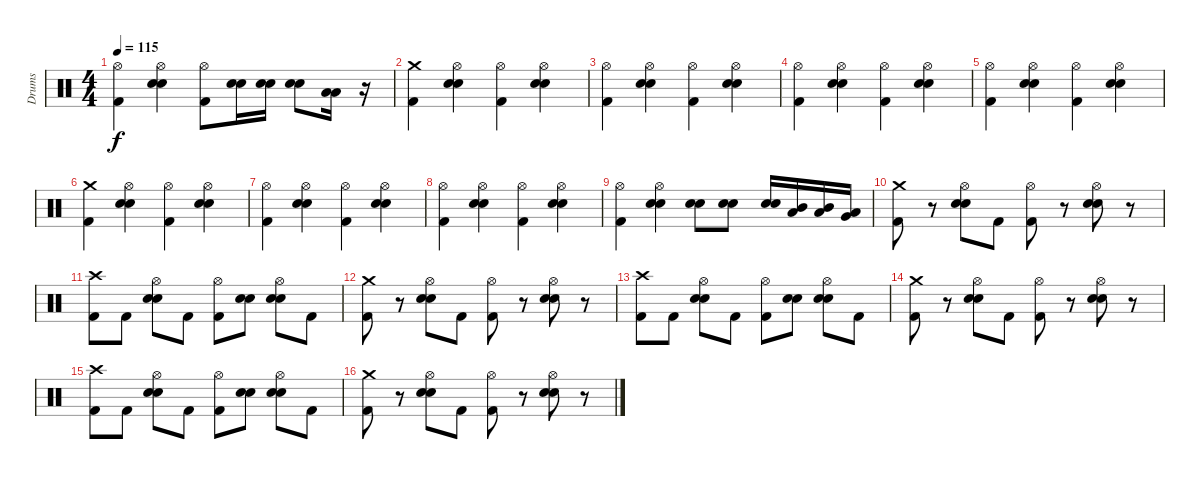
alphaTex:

\track ("Drums" "Drums") {instrument percussion}
\staff {score}
\articulation defaults
\ts (4 4)
\tempo 115
\clef neutral
\ks c
("Hi-Hat (open)" "Kick (hit) 2").4{dy f} ("Hi-Hat (open)" "Electric Snare (hit)" "Snare (hit) 2").4 ("Hi-Hat (open)" "Kick (hit) 2").8 ("Electric Snare (hit)" "Snare (hit) 2").16 ("Electric Snare (hit)" "Snare (hit) 2").16 ("Electric Snare (hit)" "Snare (hit) 2").8 ("Low Tom (hit)" "Low Floor Tom (hit)").16 r.16 |
("Crash medium (hit)" "Kick (hit) 2").4 ("Hi-Hat (open)" "Electric Snare (hit)" "Snare (hit) 2").4 ("Hi-Hat (open)" "Kick (hit) 2").4 ("Hi-Hat (open)" "Electric Snare (hit)" "Snare (hit) 2").4 |
("Hi-Hat (open)" "Kick (hit) 2").4 ("Hi-Hat (open)" "Electric Snare (hit)" "Snare (hit) 2").4 ("Hi-Hat (open)" "Kick (hit) 2").4 ("Hi-Hat (open)" "Electric Snare (hit)" "Snare (hit) 2").4 |
("Hi-Hat (open)" "Kick (hit) 2").4 ("Hi-Hat (open)" "Electric Snare (hit)" "Snare (hit) 2").4 ("Hi-Hat (open)" "Kick (hit) 2").4 ("Hi-Hat (open)" "Electric Snare (hit)" "Snare (hit) 2").4 |
("Hi-Hat (open)" "Kick (hit) 2").4 ("Hi-Hat (open)" "Electric Snare (hit)" "Snare (hit) 2").4 ("Hi-Hat (open)" "Kick (hit) 2").4 ("Hi-Hat (open)" "Electric Snare (hit)" "Snare (hit) 2").4 |
("Crash medium (hit)" "Kick (hit) 2").4 ("Hi-Hat (open)" "Electric Snare (hit)" "Snare (hit) 2").4 ("Hi-Hat (open)" "Kick (hit) 2").4 ("Hi-Hat (open)" "Electric Snare (hit)" "Snare (hit) 2").4 |
("Hi-Hat (open)" "Kick (hit) 2").4 ("Hi-Hat (open)" "Electric Snare (hit)" "Snare (hit) 2").4 ("Hi-Hat (open)" "Kick (hit) 2").4 ("Hi-Hat (open)" "Electric Snare (hit)" "Snare (hit) 2").4 |
("Hi-Hat (open)" "Kick (hit) 2").4 ("Hi-Hat (open)" "Electric Snare (hit)" "Snare (hit) 2").4 ("Hi-Hat (open)" "Kick (hit) 2").4 ("Hi-Hat (open)" "Electric Snare (hit)" "Snare (hit) 2").4 |
("Hi-Hat (open)" "Kick (hit) 2").4 ("Hi-Hat (open)" "Electric Snare (hit)" "Snare (hit) 2").4 ("Electric Snare (hit)" "Snare (hit) 2").8 ("Snare (hit) 2" "Electric Snare (hit)").8 ("Electric Snare (hit)" "Snare (hit) 2").16 ("Mid Tom (hit)" "Low Tom (hit)").16 ("Mid Tom (hit)" "Low Tom (hit)").16 ("Low Tom (hit)" "Very Low Tom (hit)").16 |
("Crash medium (hit)" "Kick (hit) 2").8 r.8 ("Hi-Hat (open)" "Snare (hit) 2" "Electric Snare (hit)").8 "Kick (hit) 2".8 ("Hi-Hat (open)" "Kick (hit) 2").8 r.8 ("Hi-Hat (open)" "Snare (hit) 2" "Electric Snare (hit)").8 r.8 |
("Crash high (hit)" "Kick (hit) 2").8 "Kick (hit) 2".8 ("Hi-Hat (open)" "Snare (hit) 2" "Electric Snare (hit)").8 "Kick (hit) 2".8 ("Hi-Hat (open)" "Kick (hit) 2").8 ("Snare (hit) 2" "Electric Snare (hit)").8 ("Hi-Hat (open)" "Electric Snare (hit)" "Snare (hit) 2").8 "Kick (hit) 2".8 |
("Crash medium (hit)" "Kick (hit) 2").8 r.8 ("Hi-Hat (open)" "Snare (hit) 2" "Electric Snare (hit)").8 "Kick (hit) 2".8 ("Hi-Hat (open)" "Kick (hit) 2").8 r.8 ("Hi-Hat (open)" "Snare (hit) 2" "Electric Snare (hit)").8 r.8 |
("Crash high (hit)" "Kick (hit) 2").8 "Kick (hit) 2".8 ("Hi-Hat (open)" "Snare (hit) 2" "Electric Snare (hit)").8 "Kick (hit) 2".8 ("Hi-Hat (open)" "Kick (hit) 2").8 ("Snare (hit) 2" "Electric Snare (hit)").8 ("Hi-Hat (open)" "Electric Snare (hit)" "Snare (hit) 2").8 "Kick (hit) 2".8 |
("Crash medium (hit)" "Kick (hit) 2").8 r.8 ("Hi-Hat (open)" "Snare (hit) 2" "Electric Snare (hit)").8 "Kick (hit) 2".8 ("Hi-Hat (open)" "Kick (hit) 2").8 r.8 ("Hi-Hat (open)" "Snare (hit) 2" "Electric Snare (hit)").8 r.8 |
("Crash high (hit)" "Kick (hit) 2").8 "Kick (hit) 2".8 ("Hi-Hat (open)" "Snare (hit) 2" "Electric Snare (hit)").8 "Kick (hit) 2".8 ("Hi-Hat (open)" "Kick (hit) 2").8 ("Snare (hit) 2" "Electric Snare (hit)").8 ("Hi-Hat (open)" "Electric Snare (hit)" "Snare (hit) 2").8 "Kick (hit) 2".8 |
("Crash medium (hit)" "Kick (hit) 2").8 r.8 ("Hi-Hat (open)" "Electric Snare (hit)" "Snare (hit) 2").8 "Kick (hit) 2".8 ("Hi-Hat (open)" "Kick (hit) 2").8 r.8 ("Hi-Hat (open)" "Electric Snare (hit)" "Snare (hit) 2").8 r.8
